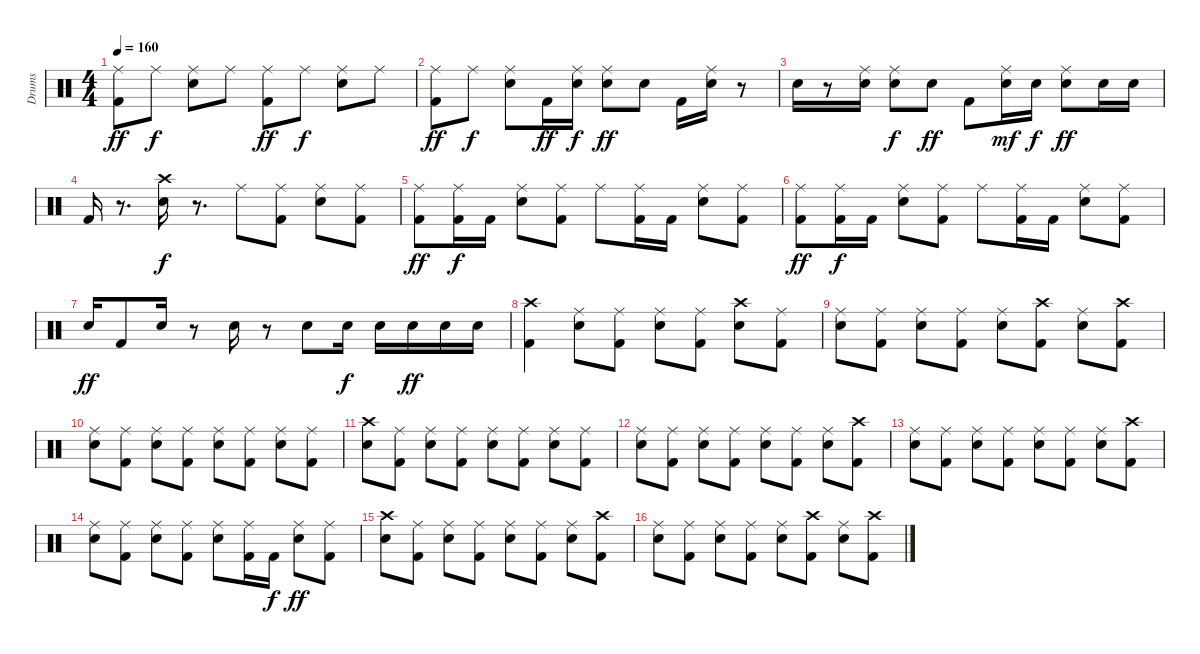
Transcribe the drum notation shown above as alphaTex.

\track ("Drums" "Drums") {instrument percussion}
\staff {score}
\articulation defaults
\ts (4 4)
\tempo 160
\clef neutral
\ks c
("Ride (middle)" "Kick (hit) 2").8{dy ff} "Ride (middle)".8{dy f} ("Ride (middle)" "Snare (hit) 2").8 "Ride (middle)".8 ("Ride (middle)" "Kick (hit) 2").8{dy ff} "Ride (middle)".8{dy f} ("Ride (middle)" "Snare (hit) 2").8 "Ride (middle)".8 |
("Ride (middle)" "Kick (hit) 2").8{dy ff} "Ride (middle)".8{dy f} ("Ride (middle)" "Snare (hit) 2").8 "Kick (hit) 2".16{dy ff} ("Ride (middle)" "Snare (hit) 2").16{dy f} ("Ride (middle)" "Snare (hit) 2").8{dy ff} "Snare (hit) 2".8 "Kick (hit) 2".16 ("Ride (middle)" "Snare (hit) 2").16 r.8 |
"Snare (hit) 2".16 r.8 ("Ride (middle)" "Snare (hit) 2").16 ("Ride (middle)" "Snare (hit) 2").8{dy f} "Snare (hit) 2".8{dy ff} "Kick (hit) 2".8 ("Ride (middle)" "Snare (hit) 2").16{dy mf} "Snare (hit) 2".16{dy f} ("Ride (middle)" "Snare (hit) 2").8{dy ff} "Snare (hit) 2".16 "Snare (hit) 2".16 |
"Kick (hit) 2".16 r.8{d} ("Crash high (hit)" "Snare (hit) 2").16{dy f} r.8{d} "Ride (middle)".8 ("Ride (middle)" "Kick (hit) 2").8 ("Ride (middle)" "Snare (hit) 2").8 ("Ride (middle)" "Kick (hit) 2").8 |
("Ride (middle)" "Kick (hit) 2").8{dy ff} ("Ride (middle)" "Kick (hit) 2").16{dy f} "Kick (hit) 2".16 ("Ride (middle)" "Snare (hit) 2").8 ("Ride (middle)" "Kick (hit) 2").8 "Ride (middle)".8 ("Ride (middle)" "Kick (hit) 2").16 "Kick (hit) 2".16 ("Ride (middle)" "Snare (hit) 2").8 ("Kick (hit) 2" "Ride (middle)").8 |
("Ride (middle)" "Kick (hit) 2").8{dy ff} ("Ride (middle)" "Kick (hit) 2").16{dy f} "Kick (hit) 2".16 ("Ride (middle)" "Snare (hit) 2").8 ("Ride (middle)" "Kick (hit) 2").8 "Ride (middle)".8 ("Ride (middle)" "Kick (hit) 2").16 "Kick (hit) 2".16 ("Ride (middle)" "Snare (hit) 2").8 ("Kick (hit) 2" "Ride (middle)").8 |
"Snare (hit) 2".16{dy ff} "Kick (hit) 2".8 "Snare (hit) 2".16 r.8 "Snare (hit) 2".16 r.8 "Snare (hit) 2".8 "Snare (hit) 2".16{dy f} "Snare (hit) 2".16 "Snare (hit) 2".16{dy ff} "Snare (hit) 2".16 "Snare (hit) 2".16 |
("Crash high (hit)" "Kick (hit) 2").4 ("Ride (middle)" "Snare (hit) 2").8 ("Ride (middle)" "Kick (hit) 2").8 ("Ride (middle)" "Snare (hit) 2").8 ("Ride (middle)" "Kick (hit) 2").8 ("Crash high (hit)" "Snare (hit) 2").8 ("Ride (middle)" "Kick (hit) 2").8 |
("Ride (middle)" "Snare (hit) 2").8 ("Ride (middle)" "Kick (hit) 2").8 ("Ride (middle)" "Snare (hit) 2").8 ("Ride (middle)" "Kick (hit) 2").8 ("Ride (middle)" "Snare (hit) 2").8 ("Crash high (hit)" "Kick (hit) 2").8 ("Ride (middle)" "Snare (hit) 2").8 ("Crash high (hit)" "Kick (hit) 2").8 |
("Ride (middle)" "Snare (hit) 2").8 ("Ride (middle)" "Kick (hit) 2").8 ("Ride (middle)" "Snare (hit) 2").8 ("Ride (middle)" "Kick (hit) 2").8 ("Ride (middle)" "Snare (hit) 2").8 ("Ride (middle)" "Kick (hit) 2").8 ("Ride (middle)" "Snare (hit) 2").8 ("Ride (middle)" "Kick (hit) 2").8 |
("Crash high (hit)" "Snare (hit) 2").8 ("Ride (middle)" "Kick (hit) 2").8 ("Ride (middle)" "Snare (hit) 2").8 ("Ride (middle)" "Kick (hit) 2").8 ("Ride (middle)" "Snare (hit) 2").8 ("Ride (middle)" "Kick (hit) 2").8 ("Ride (middle)" "Snare (hit) 2").8 ("Ride (middle)" "Kick (hit) 2").8 |
("Ride (middle)" "Snare (hit) 2").8 ("Ride (middle)" "Kick (hit) 2").8 ("Ride (middle)" "Snare (hit) 2").8 ("Ride (middle)" "Kick (hit) 2").8 ("Ride (middle)" "Snare (hit) 2").8 ("Ride (middle)" "Kick (hit) 2").8 ("Ride (middle)" "Snare (hit) 2").8 ("Crash high (hit)" "Kick (hit) 2").8 |
("Ride (middle)" "Snare (hit) 2").8 ("Ride (middle)" "Kick (hit) 2").8 ("Ride (middle)" "Snare (hit) 2").8 ("Ride (middle)" "Kick (hit) 2").8 ("Ride (middle)" "Snare (hit) 2").8 ("Ride (middle)" "Kick (hit) 2").8 ("Ride (middle)" "Snare (hit) 2").8 ("Crash high (hit)" "Kick (hit) 2").8 |
("Ride (middle)" "Snare (hit) 2").8 ("Ride (middle)" "Kick (hit) 2").8 ("Ride (middle)" "Snare (hit) 2").8 ("Ride (middle)" "Kick (hit) 2").8 ("Ride (middle)" "Snare (hit) 2").8 ("Ride (middle)" "Kick (hit) 2").16 "Kick (hit) 2".16{dy f} ("Ride (middle)" "Snare (hit) 2").8{dy ff} ("Ride (middle)" "Kick (hit) 2").8 |
("Crash high (hit)" "Snare (hit) 2").8 ("Ride (middle)" "Kick (hit) 2").8 ("Ride (middle)" "Snare (hit) 2").8 ("Ride (middle)" "Kick (hit) 2").8 ("Ride (middle)" "Snare (hit) 2").8 ("Ride (middle)" "Kick (hit) 2").8 ("Ride (middle)" "Snare (hit) 2").8 ("Crash high (hit)" "Kick (hit) 2").8 |
("Ride (middle)" "Snare (hit) 2").8 ("Ride (middle)" "Kick (hit) 2").8 ("Ride (middle)" "Snare (hit) 2").8 ("Ride (middle)" "Kick (hit) 2").8 ("Ride (middle)" "Snare (hit) 2").8 ("Crash high (hit)" "Kick (hit) 2").8 ("Ride (middle)" "Snare (hit) 2").8 ("Crash high (hit)" "Kick (hit) 2").8
